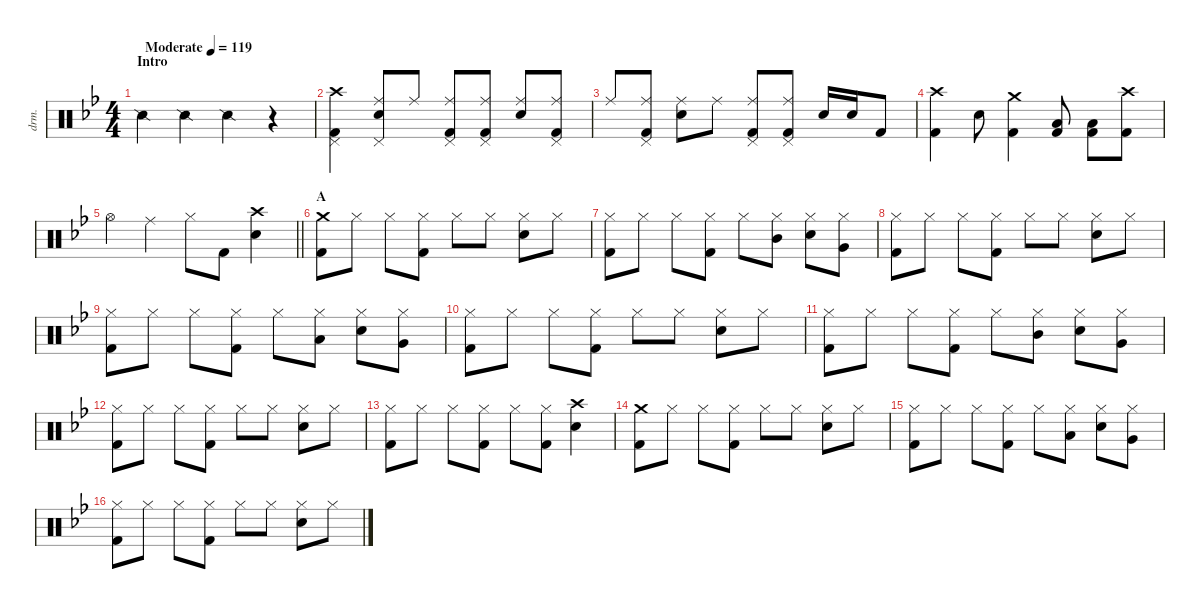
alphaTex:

\defaultSystemsLayout 4
\hideDynamics
\bracketExtendMode nobrackets
\otherSystemsTrackNameOrientation horizontal
\track ("Drums" "drm.") {instrument percussion}
\staff {score}
\articulation defaults
\ts (4 4)
\beaming (8 2 2 2 2)
\section ("" "Intro")
\tempo (119 "Moderate")
\clef neutral
\ks bb "Snare (side stick) 2"{acc forcenatural}.4{dy f} "Snare (side stick) 2"{acc forcenatural}.4 "Snare (side stick) 2"{acc forcenatural}.4
r.4 |
("Crash high (hit)"{acc forcenatural} "Pedal Hi-Hat (hit)"{acc forcenatural} "Kick (hit) 2"{acc forcenatural}).4 ("Ride (middle)"{acc forcenatural} "Pedal Hi-Hat (hit)"{acc forcenatural} "Snare (hit) 2"{acc forcenatural}).8 "Ride (middle)"{acc forcenatural}.8 ("Ride (middle)"{acc forcenatural} "Pedal Hi-Hat (hit)"{acc forcenatural} "Kick (hit) 2"{acc forcenatural}).8 ("Ride (middle)"{acc forcenatural} "Pedal Hi-Hat (hit)"{acc forcenatural} "Kick (hit) 2"{acc forcenatural}).8 ("Ride (middle)"{acc forcenatural} "Snare (hit) 2"{acc forcenatural}).8 ("Ride (middle)"{acc forcenatural} "Pedal Hi-Hat (hit)"{acc forcenatural} "Kick (hit) 2"{acc forcenatural}).8 |
"Ride (middle)"{acc forcenatural}.8 ("Ride (middle)"{acc forcenatural} "Pedal Hi-Hat (hit)"{acc forcenatural} "Kick (hit) 2"{acc forcenatural}).8 ("Ride (middle)"{acc forcenatural} "Snare (hit) 2"{acc forcenatural}).8 "Ride (middle)"{acc forcenatural}.8 ("Ride (middle)"{acc forcenatural} "Pedal Hi-Hat (hit)"{acc forcenatural} "Kick (hit) 2"{acc forcenatural}).8 ("Ride (middle)"{acc forcenatural} "Pedal Hi-Hat (hit)"{acc forcenatural} "Kick (hit) 2"{acc forcenatural}).8 "Snare (hit) 2"{acc forcenatural}.16 "Snare (hit) 2"{acc forcenatural}.16 "Kick (hit) 2"{acc forcenatural}.8 |
("Crash high (hit)"{acc forcenatural} "Kick (hit) 2"{acc forcenatural}).4 "Snare (hit) 2"{acc forcenatural}.8 ("Crash medium (hit)"{acc forcenatural} "Kick (hit) 2"{acc forcenatural}).4 ("Low Tom (hit)"{acc forcenatural} "Kick (hit) 2"{acc forcenatural}).8 ("Low Tom (hit)"{acc forcenatural} "Kick (hit) 2"{acc forcenatural}).8 ("Crash high (hit)"{acc forcenatural} "Kick (hit) 2"{acc forcenatural}).8 |
\barLineRight lightlight "Hi-Hat (open)"{acc forcenatural}.4 "Ride (middle)"{acc forcenatural}.4 "Hi-Hat (closed)"{acc forcenatural}.8 "Kick (hit) 2"{acc forcenatural}.8
("Crash high (hit)"{acc forcenatural} "Snare (hit) 2"{acc forcenatural}).4 |
\section ("" "A")
("Crash medium (hit)"{acc forcenatural} "Kick (hit) 2"{acc forcenatural}).8 "Hi-Hat (closed)"{acc forcenatural}.8 "Hi-Hat (closed)"{acc forcenatural}.8 ("Hi-Hat (closed)"{acc forcenatural} "Kick (hit) 2"{acc forcenatural}).8 "Hi-Hat (closed)"{acc forcenatural}.8 "Hi-Hat (closed)"{acc forcenatural}.8 ("Hi-Hat (closed)"{acc forcenatural} "Snare (hit) 2"{acc forcenatural}).8 "Hi-Hat (closed)"{acc forcenatural}.8 |
("Hi-Hat (closed)"{acc forcenatural} "Kick (hit) 2"{acc forcenatural}).8 "Hi-Hat (closed)"{acc forcenatural}.8 "Hi-Hat (closed)"{acc forcenatural}.8 ("Hi-Hat (closed)"{acc forcenatural} "Kick (hit) 2"{acc forcenatural}).8 "Hi-Hat (closed)"{acc forcenatural}.8 ("Mid Tom (hit)"{acc forcenatural} "Hi-Hat (closed)"{acc forcenatural}).8 ("Hi-Hat (closed)"{acc forcenatural} "Snare (hit) 2"{acc forcenatural}).8 ("Very Low Tom (hit)"{acc forcenatural} "Hi-Hat (closed)"{acc forcenatural}).8 |
("Hi-Hat (closed)"{acc forcenatural} "Kick (hit) 2"{acc forcenatural}).8 "Hi-Hat (closed)"{acc forcenatural}.8 "Hi-Hat (closed)"{acc forcenatural}.8 ("Hi-Hat (closed)"{acc forcenatural} "Kick (hit) 2"{acc forcenatural}).8 "Hi-Hat (closed)"{acc forcenatural}.8 "Hi-Hat (closed)"{acc forcenatural}.8 ("Hi-Hat (closed)"{acc forcenatural} "Snare (hit) 2"{acc forcenatural}).8 "Hi-Hat (closed)"{acc forcenatural}.8 |
("Hi-Hat (closed)"{acc forcenatural} "Kick (hit) 2"{acc forcenatural}).8 "Hi-Hat (closed)"{acc forcenatural}.8 "Hi-Hat (closed)"{acc forcenatural}.8 ("Hi-Hat (closed)"{acc forcenatural} "Kick (hit) 2"{acc forcenatural}).8 "Hi-Hat (closed)"{acc forcenatural}.8 ("Low Tom (hit)"{acc forcenatural} "Hi-Hat (closed)"{acc forcenatural}).8 ("Hi-Hat (closed)"{acc forcenatural} "Snare (hit) 2"{acc forcenatural}).8 ("Very Low Tom (hit)"{acc forcenatural} "Hi-Hat (closed)"{acc forcenatural}).8 |
("Hi-Hat (closed)"{acc forcenatural} "Kick (hit) 2"{acc forcenatural}).8 "Hi-Hat (closed)"{acc forcenatural}.8 "Hi-Hat (closed)"{acc forcenatural}.8 ("Hi-Hat (closed)"{acc forcenatural} "Kick (hit) 2"{acc forcenatural}).8 "Hi-Hat (closed)"{acc forcenatural}.8 "Hi-Hat (closed)"{acc forcenatural}.8 ("Hi-Hat (closed)"{acc forcenatural} "Snare (hit) 2"{acc forcenatural}).8 "Hi-Hat (closed)"{acc forcenatural}.8 |
("Hi-Hat (closed)"{acc forcenatural} "Kick (hit) 2"{acc forcenatural}).8 "Hi-Hat (closed)"{acc forcenatural}.8 "Hi-Hat (closed)"{acc forcenatural}.8 ("Hi-Hat (closed)"{acc forcenatural} "Kick (hit) 2"{acc forcenatural}).8 "Hi-Hat (closed)"{acc forcenatural}.8 ("Mid Tom (hit)"{acc forcenatural} "Hi-Hat (closed)"{acc forcenatural}).8 ("Hi-Hat (closed)"{acc forcenatural} "Snare (hit) 2"{acc forcenatural}).8 ("Very Low Tom (hit)"{acc forcenatural} "Hi-Hat (closed)"{acc forcenatural}).8 |
("Hi-Hat (closed)"{acc forcenatural} "Kick (hit) 2"{acc forcenatural}).8 "Hi-Hat (closed)"{acc forcenatural}.8 "Hi-Hat (closed)"{acc forcenatural}.8 ("Hi-Hat (closed)"{acc forcenatural} "Kick (hit) 2"{acc forcenatural}).8 "Hi-Hat (closed)"{acc forcenatural}.8 "Hi-Hat (closed)"{acc forcenatural}.8 ("Hi-Hat (closed)"{acc forcenatural} "Snare (hit) 2"{acc forcenatural}).8 "Hi-Hat (closed)"{acc forcenatural}.8 |
("Hi-Hat (closed)"{acc forcenatural} "Kick (hit) 2"{acc forcenatural}).8 "Hi-Hat (closed)"{acc forcenatural}.8 "Hi-Hat (closed)"{acc forcenatural}.8 ("Hi-Hat (closed)"{acc forcenatural} "Kick (hit) 2"{acc forcenatural}).8 "Hi-Hat (closed)"{acc forcenatural}.8 ("Hi-Hat (closed)"{acc forcenatural} "Kick (hit) 2"{acc forcenatural}).8 ("Crash high (hit)"{acc forcenatural} "Snare (hit) 2"{acc forcenatural}).4 |
("Crash medium (hit)"{acc forcenatural} "Kick (hit) 2"{acc forcenatural}).8 "Hi-Hat (closed)"{acc forcenatural}.8 "Hi-Hat (closed)"{acc forcenatural}.8 ("Hi-Hat (closed)"{acc forcenatural} "Kick (hit) 2"{acc forcenatural}).8 "Hi-Hat (closed)"{acc forcenatural}.8 "Hi-Hat (closed)"{acc forcenatural}.8 ("Hi-Hat (closed)"{acc forcenatural} "Snare (hit) 2"{acc forcenatural}).8 "Hi-Hat (closed)"{acc forcenatural}.8 |
("Hi-Hat (closed)"{acc forcenatural} "Kick (hit) 2"{acc forcenatural}).8 "Hi-Hat (closed)"{acc forcenatural}.8 "Hi-Hat (closed)"{acc forcenatural}.8 ("Hi-Hat (closed)"{acc forcenatural} "Kick (hit) 2"{acc forcenatural}).8 "Hi-Hat (closed)"{acc forcenatural}.8 ("Low Tom (hit)"{acc forcenatural} "Hi-Hat (closed)"{acc forcenatural}).8 ("Hi-Hat (closed)"{acc forcenatural} "Snare (hit) 2"{acc forcenatural}).8 ("Very Low Tom (hit)"{acc forcenatural} "Hi-Hat (closed)"{acc forcenatural}).8 |
("Hi-Hat (closed)"{acc forcenatural} "Kick (hit) 2"{acc forcenatural}).8 "Hi-Hat (closed)"{acc forcenatural}.8 "Hi-Hat (closed)"{acc forcenatural}.8 ("Hi-Hat (closed)"{acc forcenatural} "Kick (hit) 2"{acc forcenatural}).8 "Hi-Hat (closed)"{acc forcenatural}.8 "Hi-Hat (closed)"{acc forcenatural}.8 ("Hi-Hat (closed)"{acc forcenatural} "Snare (hit) 2"{acc forcenatural}).8 "Hi-Hat (closed)"{acc forcenatural}.8
